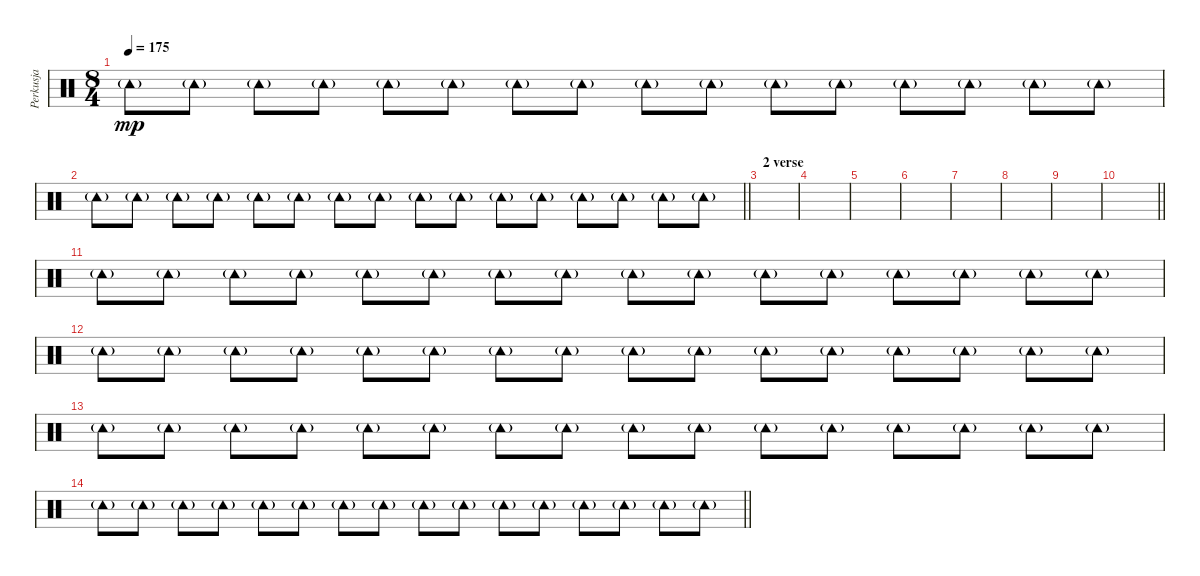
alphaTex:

\track ("Perkusja" "Perkusja") {instrument percussion}
\staff {score}
\articulation defaults
\ts (8 4)
\tempo 175
\clef neutral
\ks c "Tambourine (hit)"{g}.8{dy mp} "Tambourine (hit)"{g}.8 "Tambourine (hit)"{g}.8 "Tambourine (hit)"{g}.8 "Tambourine (hit)"{g}.8 "Tambourine (hit)"{g}.8 "Tambourine (hit)"{g}.8 "Tambourine (hit)"{g}.8 "Tambourine (hit)"{g}.8 "Tambourine (hit)"{g}.8 "Tambourine (hit)"{g}.8 "Tambourine (hit)"{g}.8 "Tambourine (hit)"{g}.8 "Tambourine (hit)"{g}.8 "Tambourine (hit)"{g}.8 "Tambourine (hit)"{g}.8
|
\barLineRight lightlight "Tambourine (hit)"{g}.8 "Tambourine (hit)"{g}.8 "Tambourine (hit)"{g}.8 "Tambourine (hit)"{g}.8 "Tambourine (hit)"{g}.8 "Tambourine (hit)"{g}.8 "Tambourine (hit)"{g}.8 "Tambourine (hit)"{g}.8 "Tambourine (hit)"{g}.8 "Tambourine (hit)"{g}.8 "Tambourine (hit)"{g}.8 "Tambourine (hit)"{g}.8 "Tambourine (hit)"{g}.8 "Tambourine (hit)"{g}.8 "Tambourine (hit)"{g}.8 "Tambourine (hit)"{g}.8
|
\section ("" "2 verse")
|
|
|
|
|
|
|
\barLineRight lightlight
|
"Tambourine (hit)"{g}.8 "Tambourine (hit)"{g}.8 "Tambourine (hit)"{g}.8 "Tambourine (hit)"{g}.8 "Tambourine (hit)"{g}.8 "Tambourine (hit)"{g}.8 "Tambourine (hit)"{g}.8 "Tambourine (hit)"{g}.8 "Tambourine (hit)"{g}.8 "Tambourine (hit)"{g}.8 "Tambourine (hit)"{g}.8 "Tambourine (hit)"{g}.8 "Tambourine (hit)"{g}.8 "Tambourine (hit)"{g}.8 "Tambourine (hit)"{g}.8 "Tambourine (hit)"{g}.8 |
"Tambourine (hit)"{g}.8 "Tambourine (hit)"{g}.8 "Tambourine (hit)"{g}.8 "Tambourine (hit)"{g}.8 "Tambourine (hit)"{g}.8 "Tambourine (hit)"{g}.8 "Tambourine (hit)"{g}.8 "Tambourine (hit)"{g}.8 "Tambourine (hit)"{g}.8 "Tambourine (hit)"{g}.8 "Tambourine (hit)"{g}.8 "Tambourine (hit)"{g}.8 "Tambourine (hit)"{g}.8 "Tambourine (hit)"{g}.8 "Tambourine (hit)"{g}.8 "Tambourine (hit)"{g}.8 |
"Tambourine (hit)"{g}.8 "Tambourine (hit)"{g}.8 "Tambourine (hit)"{g}.8 "Tambourine (hit)"{g}.8 "Tambourine (hit)"{g}.8 "Tambourine (hit)"{g}.8 "Tambourine (hit)"{g}.8 "Tambourine (hit)"{g}.8 "Tambourine (hit)"{g}.8 "Tambourine (hit)"{g}.8 "Tambourine (hit)"{g}.8 "Tambourine (hit)"{g}.8 "Tambourine (hit)"{g}.8 "Tambourine (hit)"{g}.8 "Tambourine (hit)"{g}.8 "Tambourine (hit)"{g}.8 |
\barLineRight lightlight "Tambourine (hit)"{g}.8 "Tambourine (hit)"{g}.8 "Tambourine (hit)"{g}.8 "Tambourine (hit)"{g}.8 "Tambourine (hit)"{g}.8 "Tambourine (hit)"{g}.8 "Tambourine (hit)"{g}.8 "Tambourine (hit)"{g}.8 "Tambourine (hit)"{g}.8 "Tambourine (hit)"{g}.8 "Tambourine (hit)"{g}.8 "Tambourine (hit)"{g}.8 "Tambourine (hit)"{g}.8 "Tambourine (hit)"{g}.8 "Tambourine (hit)"{g}.8 "Tambourine (hit)"{g}.8
